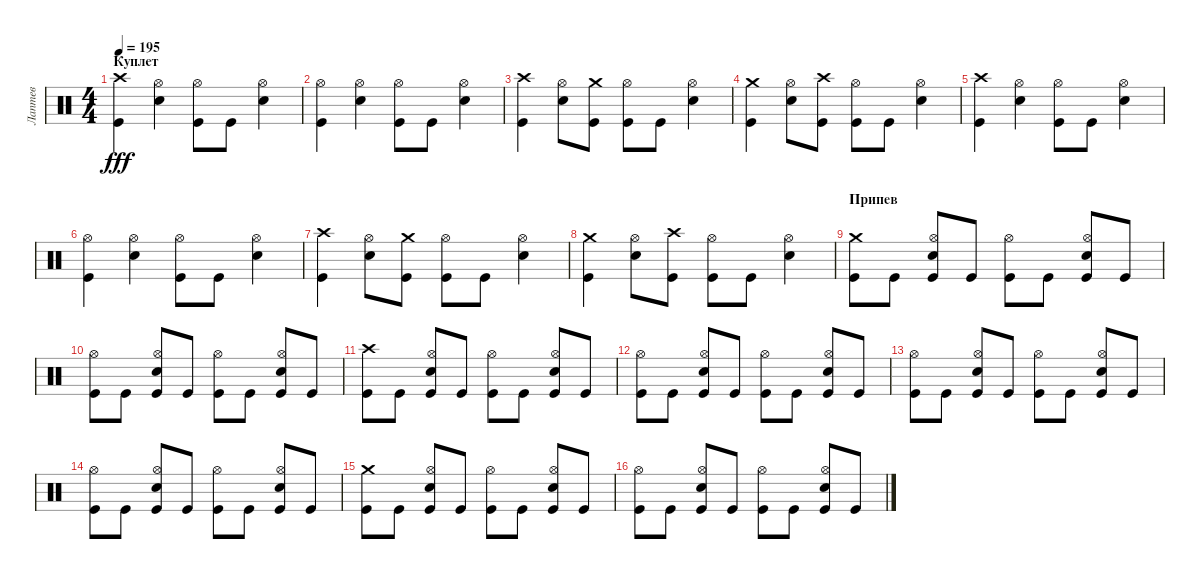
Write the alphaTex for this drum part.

\track ("Лаптев" "Лаптев") {instrument percussion}
\staff {score}
\articulation defaults
\ts (4 4)
\section ("" "Куплет")
\tempo 195
\clef neutral
\ks c
("Crash high (hit)" "Kick (hit)").4{dy fff} ("Hi-Hat (open)" "Electric Snare (hit)").4 ("Hi-Hat (open)" "Kick (hit)").8 "Kick (hit)".8 ("Hi-Hat (open)" "Electric Snare (hit)").4 |
("Hi-Hat (open)" "Kick (hit)").4 ("Hi-Hat (open)" "Electric Snare (hit)").4 ("Hi-Hat (open)" "Kick (hit)").8 "Kick (hit)".8 ("Hi-Hat (open)" "Electric Snare (hit)").4 |
("Crash high (hit)" "Kick (hit)").4 ("Hi-Hat (open)" "Electric Snare (hit)").8 ("Crash medium (hit)" "Kick (hit)").8 ("Hi-Hat (open)" "Kick (hit)").8 "Kick (hit)".8 ("Hi-Hat (open)" "Electric Snare (hit)").4 |
("Crash medium (hit)" "Kick (hit)").4 ("Hi-Hat (open)" "Electric Snare (hit)").8 ("Crash high (hit)" "Kick (hit)").8 ("Hi-Hat (open)" "Kick (hit)").8 "Kick (hit)".8 ("Hi-Hat (open)" "Electric Snare (hit)").4 |
("Crash high (hit)" "Kick (hit)").4 ("Hi-Hat (open)" "Electric Snare (hit)").4 ("Hi-Hat (open)" "Kick (hit)").8 "Kick (hit)".8 ("Hi-Hat (open)" "Electric Snare (hit)").4 |
("Hi-Hat (open)" "Kick (hit)").4 ("Hi-Hat (open)" "Electric Snare (hit)").4 ("Hi-Hat (open)" "Kick (hit)").8 "Kick (hit)".8 ("Hi-Hat (open)" "Electric Snare (hit)").4 |
("Crash high (hit)" "Kick (hit)").4 ("Hi-Hat (open)" "Electric Snare (hit)").8 ("Crash medium (hit)" "Kick (hit)").8 ("Hi-Hat (open)" "Kick (hit)").8 "Kick (hit)".8 ("Hi-Hat (open)" "Electric Snare (hit)").4 |
("Crash medium (hit)" "Kick (hit)").4 ("Hi-Hat (open)" "Electric Snare (hit)").8 ("Crash high (hit)" "Kick (hit)").8 ("Hi-Hat (open)" "Kick (hit)").8 "Kick (hit)".8 ("Hi-Hat (open)" "Electric Snare (hit)").4 |
\section ("" "Припев")
("Crash medium (hit)" "Kick (hit)").8 "Kick (hit)".8 ("Hi-Hat (open)" "Electric Snare (hit)" "Kick (hit)").8 "Kick (hit)".8 ("Hi-Hat (open)" "Kick (hit)").8 "Kick (hit)".8 ("Hi-Hat (open)" "Electric Snare (hit)" "Kick (hit)").8 "Kick (hit)".8 |
("Hi-Hat (open)" "Kick (hit)").8 "Kick (hit)".8 ("Hi-Hat (open)" "Electric Snare (hit)" "Kick (hit)").8 "Kick (hit)".8 ("Hi-Hat (open)" "Kick (hit)").8 "Kick (hit)".8 ("Hi-Hat (open)" "Electric Snare (hit)" "Kick (hit)").8 "Kick (hit)".8 |
("Crash high (hit)" "Kick (hit)").8 "Kick (hit)".8 ("Hi-Hat (open)" "Electric Snare (hit)" "Kick (hit)").8 "Kick (hit)".8 ("Hi-Hat (open)" "Kick (hit)").8 "Kick (hit)".8 ("Hi-Hat (open)" "Electric Snare (hit)" "Kick (hit)").8 "Kick (hit)".8 |
("Hi-Hat (open)" "Kick (hit)").8 "Kick (hit)".8 ("Hi-Hat (open)" "Electric Snare (hit)" "Kick (hit)").8 "Kick (hit)".8 ("Hi-Hat (open)" "Kick (hit)").8 "Kick (hit)".8 ("Hi-Hat (open)" "Electric Snare (hit)" "Kick (hit)").8 "Kick (hit)".8 |
("Hi-Hat (open)" "Kick (hit)").8 "Kick (hit)".8 ("Hi-Hat (open)" "Electric Snare (hit)" "Kick (hit)").8 "Kick (hit)".8 ("Hi-Hat (open)" "Kick (hit)").8 "Kick (hit)".8 ("Hi-Hat (open)" "Electric Snare (hit)" "Kick (hit)").8 "Kick (hit)".8 |
("Hi-Hat (open)" "Kick (hit)").8 "Kick (hit)".8 ("Hi-Hat (open)" "Electric Snare (hit)" "Kick (hit)").8 "Kick (hit)".8 ("Hi-Hat (open)" "Kick (hit)").8 "Kick (hit)".8 ("Hi-Hat (open)" "Electric Snare (hit)" "Kick (hit)").8 "Kick (hit)".8 |
("Crash medium (hit)" "Kick (hit)").8 "Kick (hit)".8 ("Hi-Hat (open)" "Electric Snare (hit)" "Kick (hit)").8 "Kick (hit)".8 ("Hi-Hat (open)" "Kick (hit)").8 "Kick (hit)".8 ("Hi-Hat (open)" "Electric Snare (hit)" "Kick (hit)").8 "Kick (hit)".8 |
("Hi-Hat (open)" "Kick (hit)").8 "Kick (hit)".8 ("Hi-Hat (open)" "Electric Snare (hit)" "Kick (hit)").8 "Kick (hit)".8 ("Hi-Hat (open)" "Kick (hit)").8 "Kick (hit)".8 ("Hi-Hat (open)" "Electric Snare (hit)" "Kick (hit)").8 "Kick (hit)".8
